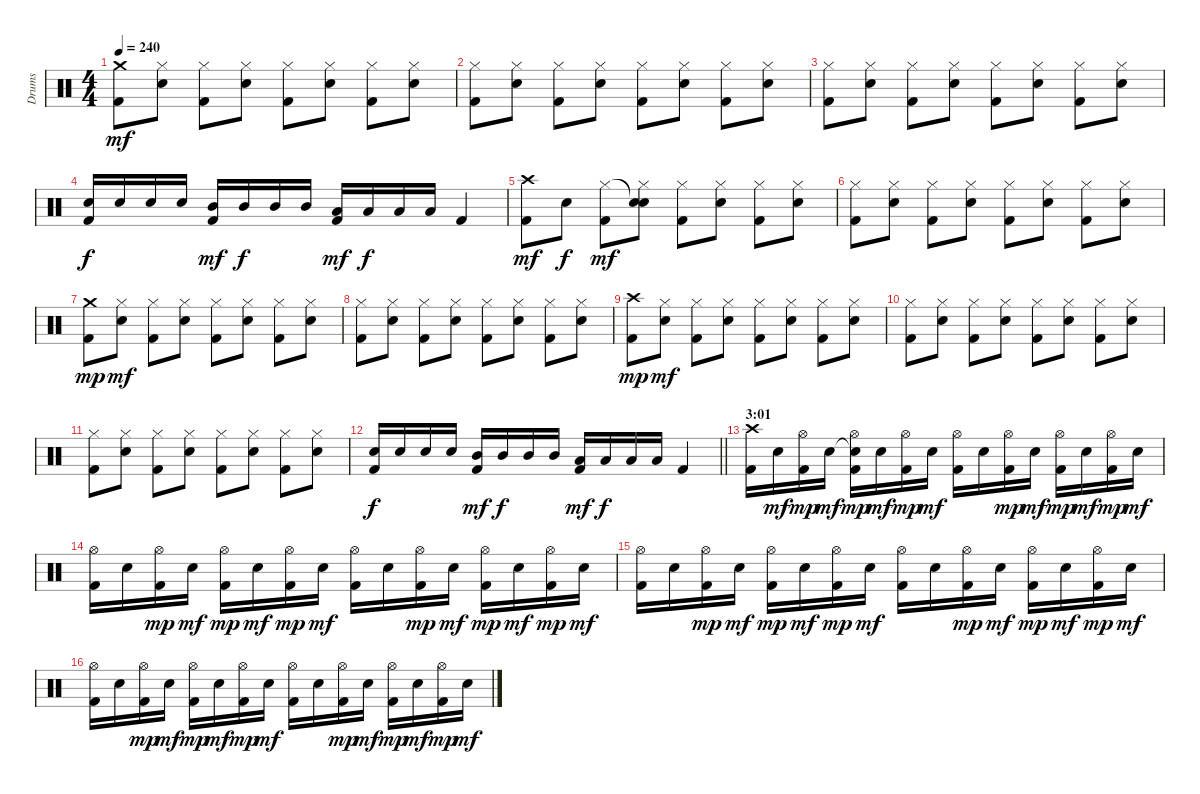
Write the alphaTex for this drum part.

\track ("Drums" "Drums") {instrument percussion}
\staff {score}
\articulation defaults
\ts (4 4)
\tempo 240
\clef neutral
\ks c
("Crash medium (hit)" "Kick (hit) 2").8{dy mf} ("Hi-Hat (closed)" "Electric Snare (hit)").8 ("Hi-Hat (closed)" "Kick (hit) 2").8 ("Hi-Hat (closed)" "Electric Snare (hit)").8 ("Hi-Hat (closed)" "Kick (hit) 2").8 ("Hi-Hat (closed)" "Electric Snare (hit)").8 ("Hi-Hat (closed)" "Kick (hit) 2").8 ("Hi-Hat (closed)" "Electric Snare (hit)").8 |
("Hi-Hat (closed)" "Kick (hit) 2").8 ("Hi-Hat (closed)" "Electric Snare (hit)").8 ("Hi-Hat (closed)" "Kick (hit) 2").8 ("Hi-Hat (closed)" "Electric Snare (hit)").8 ("Hi-Hat (closed)" "Kick (hit) 2").8 ("Hi-Hat (closed)" "Electric Snare (hit)").8 ("Hi-Hat (closed)" "Kick (hit) 2").8 ("Hi-Hat (closed)" "Electric Snare (hit)").8 |
("Hi-Hat (closed)" "Kick (hit) 2").8 ("Hi-Hat (closed)" "Electric Snare (hit)").8 ("Hi-Hat (closed)" "Kick (hit) 2").8 ("Hi-Hat (closed)" "Electric Snare (hit)").8 ("Hi-Hat (closed)" "Kick (hit) 2").8 ("Hi-Hat (closed)" "Electric Snare (hit)").8 ("Hi-Hat (closed)" "Kick (hit) 2").8 ("Hi-Hat (closed)" "Electric Snare (hit)").8 |
("Electric Snare (hit)" "Kick (hit) 2").16{dy f} "Electric Snare (hit)".16 "Electric Snare (hit)".16 "Electric Snare (hit)".16 ("Mid Tom (hit)" "Kick (hit) 2").16{dy mf} "Mid Tom (hit)".16{dy f} "Mid Tom (hit)".16 "Mid Tom (hit)".16 ("Low Tom (hit)" "Kick (hit) 2").16{dy mf} "Low Tom (hit)".16{dy f} "Low Tom (hit)".16 "Low Tom (hit)".16 "Kick (hit) 2".4 |
("Crash high (hit)" "Kick (hit) 2").8{dy mf} "Electric Snare (hit)".8{dy f} ("Hi-Hat (closed)" "Kick (hit) 2").8{dy mf} ("Snare (hit)"{t} "Hi-Hat (closed)" "Electric Snare (hit)").8 ("Hi-Hat (closed)" "Kick (hit) 2").8 ("Hi-Hat (closed)" "Electric Snare (hit)").8 ("Hi-Hat (closed)" "Kick (hit) 2").8 ("Hi-Hat (closed)" "Electric Snare (hit)").8 |
("Hi-Hat (closed)" "Kick (hit) 2").8 ("Hi-Hat (closed)" "Electric Snare (hit)").8 ("Hi-Hat (closed)" "Kick (hit) 2").8 ("Hi-Hat (closed)" "Electric Snare (hit)").8 ("Hi-Hat (closed)" "Kick (hit) 2").8 ("Hi-Hat (closed)" "Electric Snare (hit)").8 ("Hi-Hat (closed)" "Kick (hit) 2").8 ("Hi-Hat (closed)" "Electric Snare (hit)").8 |
("Crash medium (hit)" "Kick (hit) 2").8{dy mp} ("Hi-Hat (closed)" "Electric Snare (hit)").8{dy mf} ("Hi-Hat (closed)" "Kick (hit) 2").8 ("Hi-Hat (closed)" "Electric Snare (hit)").8 ("Hi-Hat (closed)" "Kick (hit) 2").8 ("Hi-Hat (closed)" "Electric Snare (hit)").8 ("Hi-Hat (closed)" "Kick (hit) 2").8 ("Hi-Hat (closed)" "Electric Snare (hit)").8 |
("Hi-Hat (closed)" "Kick (hit) 2").8 ("Hi-Hat (closed)" "Electric Snare (hit)").8 ("Hi-Hat (closed)" "Kick (hit) 2").8 ("Hi-Hat (closed)" "Electric Snare (hit)").8 ("Hi-Hat (closed)" "Kick (hit) 2").8 ("Hi-Hat (closed)" "Electric Snare (hit)").8 ("Hi-Hat (closed)" "Kick (hit) 2").8 ("Hi-Hat (closed)" "Electric Snare (hit)").8 |
("Crash high (hit)" "Kick (hit) 2").8{dy mp} ("Hi-Hat (closed)" "Electric Snare (hit)").8{dy mf} ("Hi-Hat (closed)" "Kick (hit) 2").8 ("Hi-Hat (closed)" "Electric Snare (hit)").8 ("Hi-Hat (closed)" "Kick (hit) 2").8 ("Hi-Hat (closed)" "Electric Snare (hit)").8 ("Hi-Hat (closed)" "Kick (hit) 2").8 ("Hi-Hat (closed)" "Electric Snare (hit)").8 |
("Hi-Hat (closed)" "Kick (hit) 2").8 ("Hi-Hat (closed)" "Electric Snare (hit)").8 ("Hi-Hat (closed)" "Kick (hit) 2").8 ("Hi-Hat (closed)" "Electric Snare (hit)").8 ("Hi-Hat (closed)" "Kick (hit) 2").8 ("Hi-Hat (closed)" "Electric Snare (hit)").8 ("Hi-Hat (closed)" "Kick (hit) 2").8 ("Hi-Hat (closed)" "Electric Snare (hit)").8 |
("Hi-Hat (closed)" "Kick (hit) 2").8 ("Hi-Hat (closed)" "Electric Snare (hit)").8 ("Hi-Hat (closed)" "Kick (hit) 2").8 ("Hi-Hat (closed)" "Electric Snare (hit)").8 ("Hi-Hat (closed)" "Kick (hit) 2").8 ("Hi-Hat (closed)" "Electric Snare (hit)").8 ("Hi-Hat (closed)" "Kick (hit) 2").8 ("Hi-Hat (closed)" "Electric Snare (hit)").8 |
\barLineRight lightlight
("Electric Snare (hit)" "Kick (hit) 2").16{dy f} "Electric Snare (hit)".16 "Electric Snare (hit)".16 "Electric Snare (hit)".16 ("Mid Tom (hit)" "Kick (hit) 2").16{dy mf} "Mid Tom (hit)".16{dy f} "Mid Tom (hit)".16 "Mid Tom (hit)".16 ("Low Tom (hit)" "Kick (hit) 2").16{dy mf} "Low Tom (hit)".16{dy f} "Low Tom (hit)".16 "Low Tom (hit)".16 "Kick (hit) 2".4 |
\section ("" "3:01")
("Crash high (hit)" "Kick (hit) 2").16 "Electric Snare (hit)".16{dy mf} ("Hi-Hat (open)" "Kick (hit) 2").16{dy mp} "Electric Snare (hit)".16{dy mf} ("Snare (hit)"{t} "Hi-Hat (open)" "Kick (hit) 2").16{dy mp} "Electric Snare (hit)".16{dy mf} ("Hi-Hat (open)" "Kick (hit) 2").16{dy mp} "Electric Snare (hit)".16{dy mf} ("Hi-Hat (open)" "Kick (hit) 2").16 "Electric Snare (hit)".16 ("Hi-Hat (open)" "Kick (hit) 2").16{dy mp} "Electric Snare (hit)".16{dy mf} ("Hi-Hat (open)" "Kick (hit) 2").16{dy mp} "Electric Snare (hit)".16{dy mf} ("Hi-Hat (open)" "Kick (hit) 2").16{dy mp} "Electric Snare (hit)".16{dy mf} |
("Hi-Hat (open)" "Kick (hit) 2").16 "Electric Snare (hit)".16 ("Hi-Hat (open)" "Kick (hit) 2").16{dy mp} "Electric Snare (hit)".16{dy mf} ("Hi-Hat (open)" "Kick (hit) 2").16{dy mp} "Electric Snare (hit)".16{dy mf} ("Hi-Hat (open)" "Kick (hit) 2").16{dy mp} "Electric Snare (hit)".16{dy mf} ("Hi-Hat (open)" "Kick (hit) 2").16 "Electric Snare (hit)".16 ("Hi-Hat (open)" "Kick (hit) 2").16{dy mp} "Electric Snare (hit)".16{dy mf} ("Hi-Hat (open)" "Kick (hit) 2").16{dy mp} "Electric Snare (hit)".16{dy mf} ("Hi-Hat (open)" "Kick (hit) 2").16{dy mp} "Electric Snare (hit)".16{dy mf} |
("Hi-Hat (open)" "Kick (hit) 2").16 "Electric Snare (hit)".16 ("Hi-Hat (open)" "Kick (hit) 2").16{dy mp} "Electric Snare (hit)".16{dy mf} ("Hi-Hat (open)" "Kick (hit) 2").16{dy mp} "Electric Snare (hit)".16{dy mf} ("Hi-Hat (open)" "Kick (hit) 2").16{dy mp} "Electric Snare (hit)".16{dy mf} ("Hi-Hat (open)" "Kick (hit) 2").16 "Electric Snare (hit)".16 ("Hi-Hat (open)" "Kick (hit) 2").16{dy mp} "Electric Snare (hit)".16{dy mf} ("Hi-Hat (open)" "Kick (hit) 2").16{dy mp} "Electric Snare (hit)".16{dy mf} ("Hi-Hat (open)" "Kick (hit) 2").16{dy mp} "Electric Snare (hit)".16{dy mf} |
("Hi-Hat (open)" "Kick (hit) 2").16 "Electric Snare (hit)".16 ("Hi-Hat (open)" "Kick (hit) 2").16{dy mp} "Electric Snare (hit)".16{dy mf} ("Hi-Hat (open)" "Kick (hit) 2").16{dy mp} "Electric Snare (hit)".16{dy mf} ("Hi-Hat (open)" "Kick (hit) 2").16{dy mp} "Electric Snare (hit)".16{dy mf} ("Hi-Hat (open)" "Kick (hit) 2").16 "Electric Snare (hit)".16 ("Hi-Hat (open)" "Kick (hit) 2").16{dy mp} "Electric Snare (hit)".16{dy mf} ("Hi-Hat (open)" "Kick (hit) 2").16{dy mp} "Electric Snare (hit)".16{dy mf} ("Hi-Hat (open)" "Kick (hit) 2").16{dy mp} "Electric Snare (hit)".16{dy mf}
